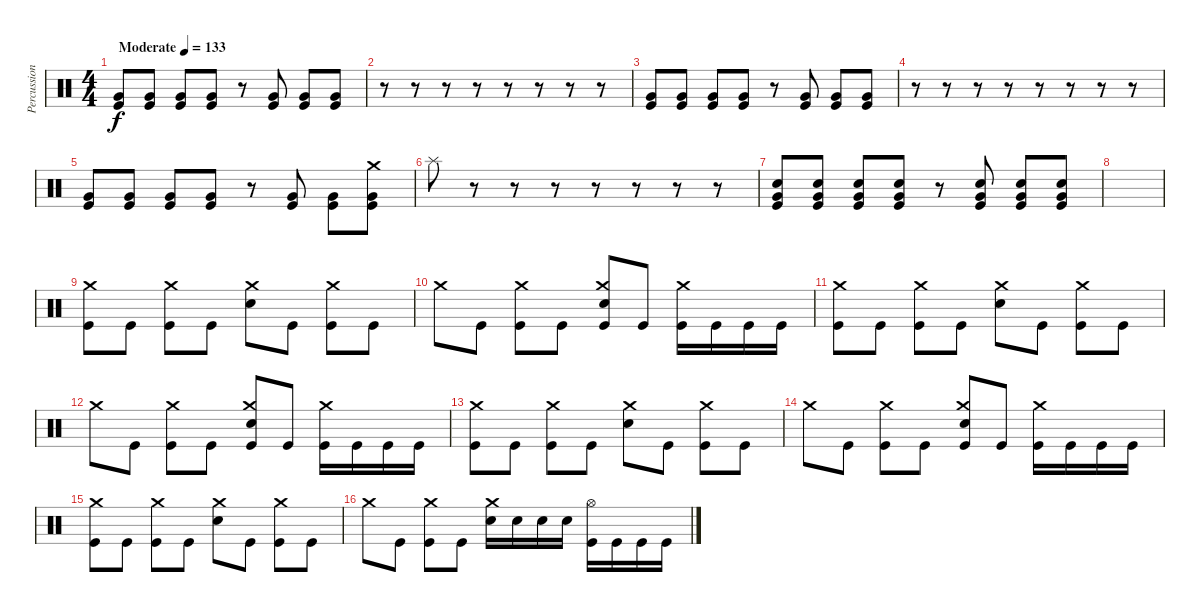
\track ("Percussion" "Percussion") {instrument percussion}
\staff {score}
\articulation defaults
\ts (4 4)
\tempo (133 "Moderate")
\clef neutral
\ks c
("Very Low Tom (hit)" "Kick (hit)").8{dy f} ("Very Low Tom (hit)" "Kick (hit)").8 ("Very Low Tom (hit)" "Kick (hit)").8 ("Very Low Tom (hit)" "Kick (hit)").8 r.8 ("Very Low Tom (hit)" "Kick (hit)").8 ("Very Low Tom (hit)" "Kick (hit)").8 ("Very Low Tom (hit)" "Kick (hit)").8 |
r.8 r.8 r.8 r.8 r.8 r.8 r.8 r.8 |
("Very Low Tom (hit)" "Kick (hit)").8 ("Very Low Tom (hit)" "Kick (hit)").8 ("Very Low Tom (hit)" "Kick (hit)").8 ("Very Low Tom (hit)" "Kick (hit)").8 r.8 ("Very Low Tom (hit)" "Kick (hit)").8 ("Very Low Tom (hit)" "Kick (hit)").8 ("Very Low Tom (hit)" "Kick (hit)").8 |
r.8 r.8 r.8 r.8 r.8 r.8 r.8 r.8 |
("Very Low Tom (hit)" "Kick (hit)").8 ("Very Low Tom (hit)" "Kick (hit)").8 ("Very Low Tom (hit)" "Kick (hit)").8 ("Very Low Tom (hit)" "Kick (hit)").8 r.8 ("Very Low Tom (hit)" "Kick (hit)").8 ("Very Low Tom (hit)" "Kick (hit)").8 ("Crash medium (hit)" "Very Low Tom (hit)" "Kick (hit)").8 |
"Splash (hit)".8 r.8 r.8 r.8 r.8 r.8 r.8 r.8 |
("Electric Snare (hit)" "Very Low Tom (hit)" "Kick (hit)").8 ("Electric Snare (hit)" "Very Low Tom (hit)" "Kick (hit)").8 ("Electric Snare (hit)" "Very Low Tom (hit)" "Kick (hit)").8 ("Electric Snare (hit)" "Very Low Tom (hit)" "Kick (hit)").8 r.8 ("Electric Snare (hit)" "Very Low Tom (hit)" "Kick (hit)").8 ("Electric Snare (hit)" "Very Low Tom (hit)" "Kick (hit)").8 ("Electric Snare (hit)" "Very Low Tom (hit)" "Kick (hit)").8 |
|
("Crash medium (hit)" "Kick (hit)").8 "Kick (hit)".8 ("Crash medium (hit)" "Kick (hit)").8 "Kick (hit)".8 ("Crash medium (hit)" "Electric Snare (hit)").8 "Kick (hit)".8 ("Crash medium (hit)" "Kick (hit)").8 "Kick (hit)".8 |
"Crash medium (hit)".8 "Kick (hit)".8 ("Crash medium (hit)" "Kick (hit)").8 "Kick (hit)".8 ("Crash medium (hit)" "Electric Snare (hit)" "Kick (hit)").8 "Kick (hit)".8 ("Crash medium (hit)" "Kick (hit)").16 "Kick (hit)".16 "Kick (hit)".16 "Kick (hit)".16 |
("Crash medium (hit)" "Kick (hit)").8 "Kick (hit)".8 ("Crash medium (hit)" "Kick (hit)").8 "Kick (hit)".8 ("Crash medium (hit)" "Electric Snare (hit)").8 "Kick (hit)".8 ("Crash medium (hit)" "Kick (hit)").8 "Kick (hit)".8 |
"Crash medium (hit)".8 "Kick (hit)".8 ("Crash medium (hit)" "Kick (hit)").8 "Kick (hit)".8 ("Crash medium (hit)" "Electric Snare (hit)" "Kick (hit)").8 "Kick (hit)".8 ("Crash medium (hit)" "Kick (hit)").16 "Kick (hit)".16 "Kick (hit)".16 "Kick (hit)".16 |
("Crash medium (hit)" "Kick (hit)").8 "Kick (hit)".8 ("Crash medium (hit)" "Kick (hit)").8 "Kick (hit)".8 ("Crash medium (hit)" "Electric Snare (hit)").8 "Kick (hit)".8 ("Crash medium (hit)" "Kick (hit)").8 "Kick (hit)".8 |
"Crash medium (hit)".8 "Kick (hit)".8 ("Crash medium (hit)" "Kick (hit)").8 "Kick (hit)".8 ("Crash medium (hit)" "Electric Snare (hit)" "Kick (hit)").8 "Kick (hit)".8 ("Crash medium (hit)" "Kick (hit)").16 "Kick (hit)".16 "Kick (hit)".16 "Kick (hit)".16 |
("Crash medium (hit)" "Kick (hit)").8 "Kick (hit)".8 ("Crash medium (hit)" "Kick (hit)").8 "Kick (hit)".8 ("Crash medium (hit)" "Electric Snare (hit)").8 "Kick (hit)".8 ("Crash medium (hit)" "Kick (hit)").8 "Kick (hit)".8 |
"Crash medium (hit)".8 "Kick (hit)".8 ("Crash medium (hit)" "Kick (hit)").8 "Kick (hit)".8 ("Crash medium (hit)" "Electric Snare (hit)").16 "Electric Snare (hit)".16 "Electric Snare (hit)".16 "Electric Snare (hit)".16 ("Hi-Hat (open)" "Kick (hit)").16 "Kick (hit)".16 "Kick (hit)".16 "Kick (hit)".16
